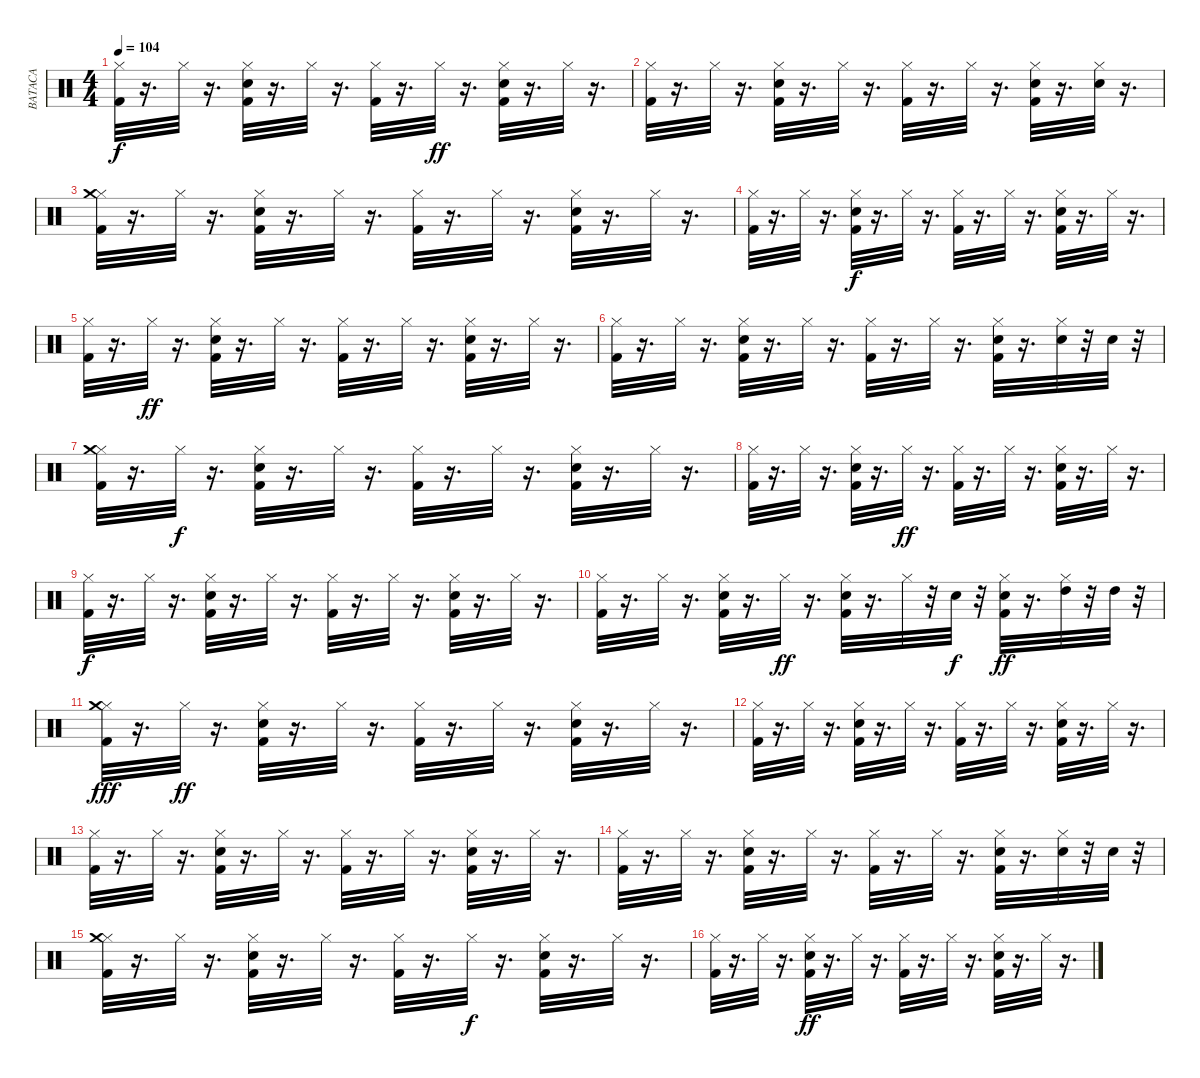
\track ("BATACA" "BATACA") {instrument percussion}
\staff {score}
\articulation defaults
\ts (4 4)
\tempo 104
\clef neutral
\ks c
("Hi-Hat (closed)" "Kick (hit) 2").32{dy f} r.16{d} "Hi-Hat (closed)".32 r.16{d} ("Hi-Hat (closed)" "Kick (hit) 2" "Electric Snare (hit)").32 r.16{d} "Hi-Hat (closed)".32 r.16{d} ("Hi-Hat (closed)" "Kick (hit) 2").32 r.16{d} "Hi-Hat (closed)".32{dy ff} r.16{d} ("Hi-Hat (closed)" "Kick (hit) 2" "Electric Snare (hit)").32 r.16{d} "Hi-Hat (closed)".32 r.16{d} |
("Hi-Hat (closed)" "Kick (hit) 2").32 r.16{d} "Hi-Hat (closed)".32 r.16{d} ("Hi-Hat (closed)" "Kick (hit) 2" "Electric Snare (hit)").32 r.16{d} "Hi-Hat (closed)".32 r.16{d} ("Hi-Hat (closed)" "Kick (hit) 2").32 r.16{d} "Hi-Hat (closed)".32 r.16{d} ("Hi-Hat (closed)" "Kick (hit) 2" "Electric Snare (hit)").32 r.16{d} ("Hi-Hat (closed)" "Electric Snare (hit)").32 r.16{d} |
("Hi-Hat (closed)" "Kick (hit) 2" "Crash medium (hit)").32 r.16{d} "Hi-Hat (closed)".32 r.16{d} ("Hi-Hat (closed)" "Kick (hit) 2" "Electric Snare (hit)").32 r.16{d} "Hi-Hat (closed)".32 r.16{d} ("Hi-Hat (closed)" "Kick (hit) 2").32 r.16{d} "Hi-Hat (closed)".32 r.16{d} ("Hi-Hat (closed)" "Kick (hit) 2" "Electric Snare (hit)").32 r.16{d} "Hi-Hat (closed)".32 r.16{d} |
("Hi-Hat (closed)" "Kick (hit) 2").32 r.16{d} "Hi-Hat (closed)".32 r.16{d} ("Hi-Hat (closed)" "Kick (hit) 2" "Electric Snare (hit)").32{dy f} r.16{d} "Hi-Hat (closed)".32 r.16{d} ("Hi-Hat (closed)" "Kick (hit) 2").32 r.16{d} "Hi-Hat (closed)".32 r.16{d} ("Hi-Hat (closed)" "Kick (hit) 2" "Electric Snare (hit)").32 r.16{d} "Hi-Hat (closed)".32 r.16{d} |
("Hi-Hat (closed)" "Kick (hit) 2").32 r.16{d} "Hi-Hat (closed)".32{dy ff} r.16{d} ("Hi-Hat (closed)" "Kick (hit) 2" "Electric Snare (hit)").32 r.16{d} "Hi-Hat (closed)".32 r.16{d} ("Hi-Hat (closed)" "Kick (hit) 2").32 r.16{d} "Hi-Hat (closed)".32 r.16{d} ("Hi-Hat (closed)" "Kick (hit) 2" "Electric Snare (hit)").32 r.16{d} "Hi-Hat (closed)".32 r.16{d} |
("Hi-Hat (closed)" "Kick (hit) 2").32 r.16{d} "Hi-Hat (closed)".32 r.16{d} ("Hi-Hat (closed)" "Kick (hit) 2" "Electric Snare (hit)").32 r.16{d} "Hi-Hat (closed)".32 r.16{d} ("Hi-Hat (closed)" "Kick (hit) 2").32 r.16{d} "Hi-Hat (closed)".32 r.16{d} ("Hi-Hat (closed)" "Kick (hit) 2" "Electric Snare (hit)").32 r.16{d} ("Hi-Hat (closed)" "Electric Snare (hit)").32 r.32 "Electric Snare (hit)".32 r.32 |
("Hi-Hat (closed)" "Kick (hit) 2" "Crash medium (hit)").32 r.16{d} "Hi-Hat (closed)".32{dy f} r.16{d} ("Hi-Hat (closed)" "Kick (hit) 2" "Electric Snare (hit)").32 r.16{d} "Hi-Hat (closed)".32 r.16{d} ("Hi-Hat (closed)" "Kick (hit) 2").32 r.16{d} "Hi-Hat (closed)".32 r.16{d} ("Hi-Hat (closed)" "Kick (hit) 2" "Electric Snare (hit)").32 r.16{d} "Hi-Hat (closed)".32 r.16{d} |
("Hi-Hat (closed)" "Kick (hit) 2").32 r.16{d} "Hi-Hat (closed)".32 r.16{d} ("Hi-Hat (closed)" "Kick (hit) 2" "Electric Snare (hit)").32 r.16{d} "Hi-Hat (closed)".32{dy ff} r.16{d} ("Hi-Hat (closed)" "Kick (hit) 2").32 r.16{d} "Hi-Hat (closed)".32 r.16{d} ("Hi-Hat (closed)" "Kick (hit) 2" "Electric Snare (hit)").32 r.16{d} "Hi-Hat (closed)".32 r.16{d} |
("Hi-Hat (closed)" "Kick (hit) 2").32{dy f} r.16{d} "Hi-Hat (closed)".32 r.16{d} ("Hi-Hat (closed)" "Kick (hit) 2" "Electric Snare (hit)").32 r.16{d} "Hi-Hat (closed)".32 r.16{d} ("Hi-Hat (closed)" "Kick (hit) 2").32 r.16{d} "Hi-Hat (closed)".32 r.16{d} ("Hi-Hat (closed)" "Kick (hit) 2" "Electric Snare (hit)").32 r.16{d} "Hi-Hat (closed)".32 r.16{d} |
("Hi-Hat (closed)" "Kick (hit) 2").32 r.16{d} "Hi-Hat (closed)".32 r.16{d} ("Hi-Hat (closed)" "Kick (hit) 2" "Electric Snare (hit)").32 r.16{d} "Hi-Hat (closed)".32{dy ff} r.16{d} ("Hi-Hat (closed)" "Kick (hit) 2" "Electric Snare (hit)").32 r.16{d} "Hi-Hat (closed)".32 r.32 "Electric Snare (hit)".32{dy f} r.32 ("Hi-Hat (closed)" "Kick (hit) 2" "Electric Snare (hit)").32{dy ff} r.16{d} ("Hi-Hat (closed)" "High Tom (hit)").32 r.32 "High Tom (hit)".32 r.32 |
("Hi-Hat (closed)" "Kick (hit) 2" "Crash medium (hit)").32{dy fff} r.16{d} "Hi-Hat (closed)".32{dy ff} r.16{d} ("Hi-Hat (closed)" "Kick (hit) 2" "Electric Snare (hit)").32 r.16{d} "Hi-Hat (closed)".32 r.16{d} ("Hi-Hat (closed)" "Kick (hit) 2").32 r.16{d} "Hi-Hat (closed)".32 r.16{d} ("Hi-Hat (closed)" "Kick (hit) 2" "Electric Snare (hit)").32 r.16{d} "Hi-Hat (closed)".32 r.16{d} |
("Hi-Hat (closed)" "Kick (hit) 2").32 r.16{d} "Hi-Hat (closed)".32 r.16{d} ("Hi-Hat (closed)" "Kick (hit) 2" "Electric Snare (hit)").32 r.16{d} "Hi-Hat (closed)".32 r.16{d} ("Hi-Hat (closed)" "Kick (hit) 2").32 r.16{d} "Hi-Hat (closed)".32 r.16{d} ("Hi-Hat (closed)" "Kick (hit) 2" "Electric Snare (hit)").32 r.16{d} "Hi-Hat (closed)".32 r.16{d} |
("Hi-Hat (closed)" "Kick (hit) 2").32 r.16{d} "Hi-Hat (closed)".32 r.16{d} ("Hi-Hat (closed)" "Kick (hit) 2" "Electric Snare (hit)").32 r.16{d} "Hi-Hat (closed)".32 r.16{d} ("Hi-Hat (closed)" "Kick (hit) 2").32 r.16{d} "Hi-Hat (closed)".32 r.16{d} ("Hi-Hat (closed)" "Kick (hit) 2" "Electric Snare (hit)").32 r.16{d} "Hi-Hat (closed)".32 r.16{d} |
("Hi-Hat (closed)" "Kick (hit) 2").32 r.16{d} "Hi-Hat (closed)".32 r.16{d} ("Hi-Hat (closed)" "Kick (hit) 2" "Electric Snare (hit)").32 r.16{d} "Hi-Hat (closed)".32 r.16{d} ("Hi-Hat (closed)" "Kick (hit) 2").32 r.16{d} "Hi-Hat (closed)".32 r.16{d} ("Hi-Hat (closed)" "Kick (hit) 2" "Electric Snare (hit)").32 r.16{d} ("Hi-Hat (closed)" "Electric Snare (hit)").32 r.32 "Electric Snare (hit)".32 r.32 |
("Hi-Hat (closed)" "Kick (hit) 2" "Crash medium (hit)").32 r.16{d} "Hi-Hat (closed)".32 r.16{d} ("Hi-Hat (closed)" "Kick (hit) 2" "Electric Snare (hit)").32 r.16{d} "Hi-Hat (closed)".32 r.16{d} ("Hi-Hat (closed)" "Kick (hit) 2").32 r.16{d} "Hi-Hat (closed)".32{dy f} r.16{d} ("Hi-Hat (closed)" "Kick (hit) 2" "Electric Snare (hit)").32 r.16{d} "Hi-Hat (closed)".32 r.16{d} |
("Hi-Hat (closed)" "Kick (hit) 2").32 r.16{d} "Hi-Hat (closed)".32 r.16{d} ("Hi-Hat (closed)" "Kick (hit) 2" "Electric Snare (hit)").32{dy ff} r.16{d} "Hi-Hat (closed)".32 r.16{d} ("Hi-Hat (closed)" "Kick (hit) 2").32 r.16{d} "Hi-Hat (closed)".32 r.16{d} ("Hi-Hat (closed)" "Kick (hit) 2" "Electric Snare (hit)").32 r.16{d} "Hi-Hat (closed)".32 r.16{d}
